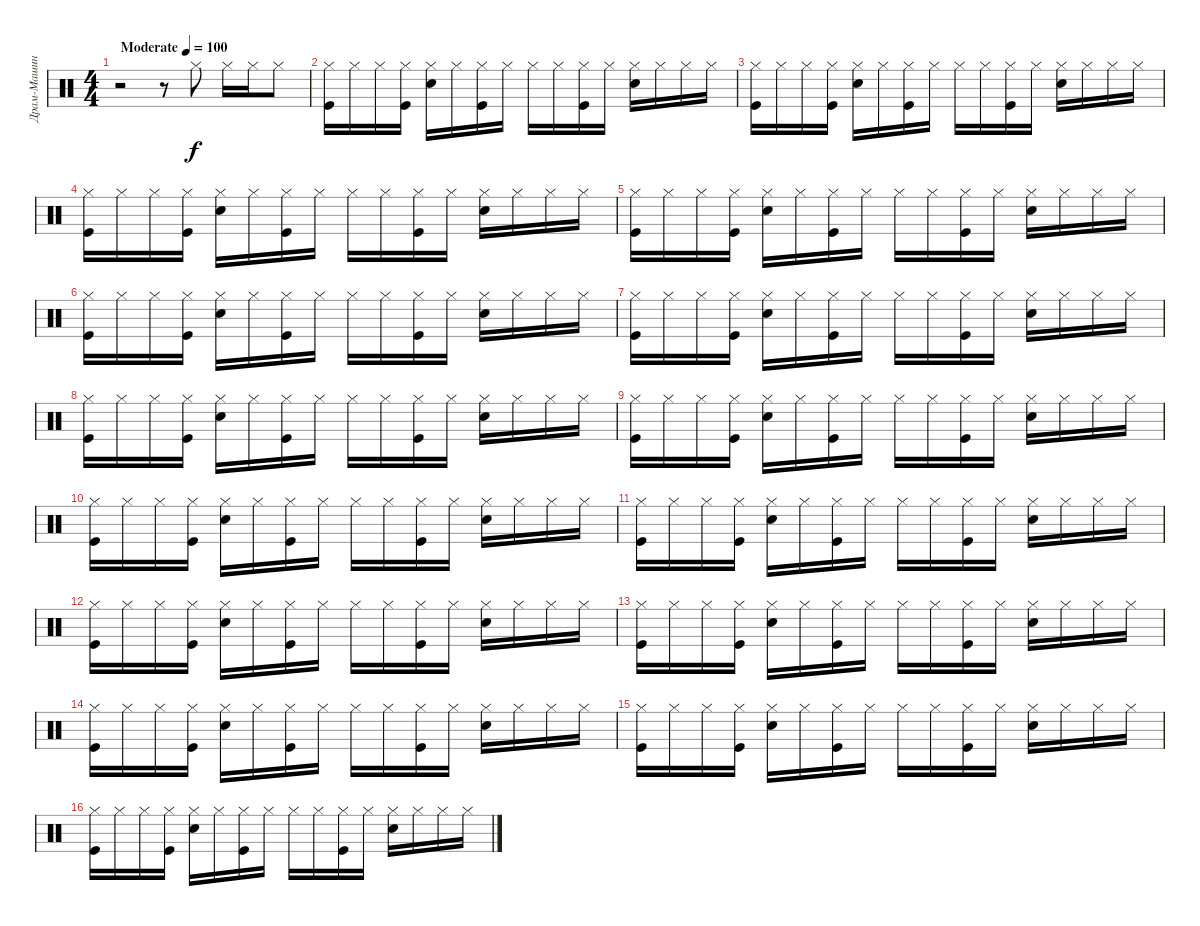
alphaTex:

\track ("Драм-Машина" "Драм-Машин") {instrument percussion}
\staff {score}
\articulation defaults
\ts (4 4)
\tempo (100 "Moderate")
\clef neutral
\ks c
r.2{dy f} r.8 "Hi-Hat (closed)".8 "Hi-Hat (closed)".16 "Hi-Hat (closed)".16 "Hi-Hat (closed)".8 |
("Kick (hit)" "Hi-Hat (closed)").16 "Hi-Hat (closed)".16 "Hi-Hat (closed)".16 ("Kick (hit)" "Hi-Hat (closed)").16 ("Electric Snare (hit)" "Hi-Hat (closed)").16 "Hi-Hat (closed)".16 ("Kick (hit)" "Hi-Hat (closed)").16 "Hi-Hat (closed)".16 "Hi-Hat (closed)".16 "Hi-Hat (closed)".16 ("Kick (hit)" "Hi-Hat (closed)").16 "Hi-Hat (closed)".16 ("Electric Snare (hit)" "Hi-Hat (closed)").16 "Hi-Hat (closed)".16 "Hi-Hat (closed)".16 "Hi-Hat (closed)".16 |
("Kick (hit)" "Hi-Hat (closed)").16 "Hi-Hat (closed)".16 "Hi-Hat (closed)".16 ("Kick (hit)" "Hi-Hat (closed)").16 ("Electric Snare (hit)" "Hi-Hat (closed)").16 "Hi-Hat (closed)".16 ("Kick (hit)" "Hi-Hat (closed)").16 "Hi-Hat (closed)".16 "Hi-Hat (closed)".16 "Hi-Hat (closed)".16 ("Kick (hit)" "Hi-Hat (closed)").16 "Hi-Hat (closed)".16 ("Electric Snare (hit)" "Hi-Hat (closed)").16 "Hi-Hat (closed)".16 "Hi-Hat (closed)".16 "Hi-Hat (closed)".16 |
("Kick (hit)" "Hi-Hat (closed)").16 "Hi-Hat (closed)".16 "Hi-Hat (closed)".16 ("Kick (hit)" "Hi-Hat (closed)").16 ("Electric Snare (hit)" "Hi-Hat (closed)").16 "Hi-Hat (closed)".16 ("Kick (hit)" "Hi-Hat (closed)").16 "Hi-Hat (closed)".16 "Hi-Hat (closed)".16 "Hi-Hat (closed)".16 ("Kick (hit)" "Hi-Hat (closed)").16 "Hi-Hat (closed)".16 ("Electric Snare (hit)" "Hi-Hat (closed)").16 "Hi-Hat (closed)".16 "Hi-Hat (closed)".16 "Hi-Hat (closed)".16 |
("Kick (hit)" "Hi-Hat (closed)").16 "Hi-Hat (closed)".16 "Hi-Hat (closed)".16 ("Kick (hit)" "Hi-Hat (closed)").16 ("Electric Snare (hit)" "Hi-Hat (closed)").16 "Hi-Hat (closed)".16 ("Kick (hit)" "Hi-Hat (closed)").16 "Hi-Hat (closed)".16 "Hi-Hat (closed)".16 "Hi-Hat (closed)".16 ("Kick (hit)" "Hi-Hat (closed)").16 "Hi-Hat (closed)".16 ("Electric Snare (hit)" "Hi-Hat (closed)").16 "Hi-Hat (closed)".16 "Hi-Hat (closed)".16 "Hi-Hat (closed)".16 |
("Kick (hit)" "Hi-Hat (closed)").16 "Hi-Hat (closed)".16 "Hi-Hat (closed)".16 ("Kick (hit)" "Hi-Hat (closed)").16 ("Electric Snare (hit)" "Hi-Hat (closed)").16 "Hi-Hat (closed)".16 ("Kick (hit)" "Hi-Hat (closed)").16 "Hi-Hat (closed)".16 "Hi-Hat (closed)".16 "Hi-Hat (closed)".16 ("Kick (hit)" "Hi-Hat (closed)").16 "Hi-Hat (closed)".16 ("Electric Snare (hit)" "Hi-Hat (closed)").16 "Hi-Hat (closed)".16 "Hi-Hat (closed)".16 "Hi-Hat (closed)".16 |
("Kick (hit)" "Hi-Hat (closed)").16 "Hi-Hat (closed)".16 "Hi-Hat (closed)".16 ("Kick (hit)" "Hi-Hat (closed)").16 ("Electric Snare (hit)" "Hi-Hat (closed)").16 "Hi-Hat (closed)".16 ("Kick (hit)" "Hi-Hat (closed)").16 "Hi-Hat (closed)".16 "Hi-Hat (closed)".16 "Hi-Hat (closed)".16 ("Kick (hit)" "Hi-Hat (closed)").16 "Hi-Hat (closed)".16 ("Electric Snare (hit)" "Hi-Hat (closed)").16 "Hi-Hat (closed)".16 "Hi-Hat (closed)".16 "Hi-Hat (closed)".16 |
("Kick (hit)" "Hi-Hat (closed)").16 "Hi-Hat (closed)".16 "Hi-Hat (closed)".16 ("Kick (hit)" "Hi-Hat (closed)").16 ("Electric Snare (hit)" "Hi-Hat (closed)").16 "Hi-Hat (closed)".16 ("Kick (hit)" "Hi-Hat (closed)").16 "Hi-Hat (closed)".16 "Hi-Hat (closed)".16 "Hi-Hat (closed)".16 ("Kick (hit)" "Hi-Hat (closed)").16 "Hi-Hat (closed)".16 ("Electric Snare (hit)" "Hi-Hat (closed)").16 "Hi-Hat (closed)".16 "Hi-Hat (closed)".16 "Hi-Hat (closed)".16 |
("Kick (hit)" "Hi-Hat (closed)").16 "Hi-Hat (closed)".16 "Hi-Hat (closed)".16 ("Kick (hit)" "Hi-Hat (closed)").16 ("Electric Snare (hit)" "Hi-Hat (closed)").16 "Hi-Hat (closed)".16 ("Kick (hit)" "Hi-Hat (closed)").16 "Hi-Hat (closed)".16 "Hi-Hat (closed)".16 "Hi-Hat (closed)".16 ("Kick (hit)" "Hi-Hat (closed)").16 "Hi-Hat (closed)".16 ("Electric Snare (hit)" "Hi-Hat (closed)").16 "Hi-Hat (closed)".16 "Hi-Hat (closed)".16 "Hi-Hat (closed)".16 |
("Kick (hit)" "Hi-Hat (closed)").16 "Hi-Hat (closed)".16 "Hi-Hat (closed)".16 ("Kick (hit)" "Hi-Hat (closed)").16 ("Electric Snare (hit)" "Hi-Hat (closed)").16 "Hi-Hat (closed)".16 ("Kick (hit)" "Hi-Hat (closed)").16 "Hi-Hat (closed)".16 "Hi-Hat (closed)".16 "Hi-Hat (closed)".16 ("Kick (hit)" "Hi-Hat (closed)").16 "Hi-Hat (closed)".16 ("Electric Snare (hit)" "Hi-Hat (closed)").16 "Hi-Hat (closed)".16 "Hi-Hat (closed)".16 "Hi-Hat (closed)".16 |
("Kick (hit)" "Hi-Hat (closed)").16 "Hi-Hat (closed)".16 "Hi-Hat (closed)".16 ("Kick (hit)" "Hi-Hat (closed)").16 ("Electric Snare (hit)" "Hi-Hat (closed)").16 "Hi-Hat (closed)".16 ("Kick (hit)" "Hi-Hat (closed)").16 "Hi-Hat (closed)".16 "Hi-Hat (closed)".16 "Hi-Hat (closed)".16 ("Kick (hit)" "Hi-Hat (closed)").16 "Hi-Hat (closed)".16 ("Electric Snare (hit)" "Hi-Hat (closed)").16 "Hi-Hat (closed)".16 "Hi-Hat (closed)".16 "Hi-Hat (closed)".16 |
("Kick (hit)" "Hi-Hat (closed)").16 "Hi-Hat (closed)".16 "Hi-Hat (closed)".16 ("Kick (hit)" "Hi-Hat (closed)").16 ("Electric Snare (hit)" "Hi-Hat (closed)").16 "Hi-Hat (closed)".16 ("Kick (hit)" "Hi-Hat (closed)").16 "Hi-Hat (closed)".16 "Hi-Hat (closed)".16 "Hi-Hat (closed)".16 ("Kick (hit)" "Hi-Hat (closed)").16 "Hi-Hat (closed)".16 ("Electric Snare (hit)" "Hi-Hat (closed)").16 "Hi-Hat (closed)".16 "Hi-Hat (closed)".16 "Hi-Hat (closed)".16 |
("Kick (hit)" "Hi-Hat (closed)").16 "Hi-Hat (closed)".16 "Hi-Hat (closed)".16 ("Kick (hit)" "Hi-Hat (closed)").16 ("Electric Snare (hit)" "Hi-Hat (closed)").16 "Hi-Hat (closed)".16 ("Kick (hit)" "Hi-Hat (closed)").16 "Hi-Hat (closed)".16 "Hi-Hat (closed)".16 "Hi-Hat (closed)".16 ("Kick (hit)" "Hi-Hat (closed)").16 "Hi-Hat (closed)".16 ("Electric Snare (hit)" "Hi-Hat (closed)").16 "Hi-Hat (closed)".16 "Hi-Hat (closed)".16 "Hi-Hat (closed)".16 |
("Kick (hit)" "Hi-Hat (closed)").16 "Hi-Hat (closed)".16 "Hi-Hat (closed)".16 ("Kick (hit)" "Hi-Hat (closed)").16 ("Electric Snare (hit)" "Hi-Hat (closed)").16 "Hi-Hat (closed)".16 ("Kick (hit)" "Hi-Hat (closed)").16 "Hi-Hat (closed)".16 "Hi-Hat (closed)".16 "Hi-Hat (closed)".16 ("Kick (hit)" "Hi-Hat (closed)").16 "Hi-Hat (closed)".16 ("Electric Snare (hit)" "Hi-Hat (closed)").16 "Hi-Hat (closed)".16 "Hi-Hat (closed)".16 "Hi-Hat (closed)".16 |
("Kick (hit)" "Hi-Hat (closed)").16 "Hi-Hat (closed)".16 "Hi-Hat (closed)".16 ("Kick (hit)" "Hi-Hat (closed)").16 ("Electric Snare (hit)" "Hi-Hat (closed)").16 "Hi-Hat (closed)".16 ("Kick (hit)" "Hi-Hat (closed)").16 "Hi-Hat (closed)".16 "Hi-Hat (closed)".16 "Hi-Hat (closed)".16 ("Kick (hit)" "Hi-Hat (closed)").16 "Hi-Hat (closed)".16 ("Electric Snare (hit)" "Hi-Hat (closed)").16 "Hi-Hat (closed)".16 "Hi-Hat (closed)".16 "Hi-Hat (closed)".16 |
("Kick (hit)" "Hi-Hat (closed)").16 "Hi-Hat (closed)".16 "Hi-Hat (closed)".16 ("Kick (hit)" "Hi-Hat (closed)").16 ("Electric Snare (hit)" "Hi-Hat (closed)").16 "Hi-Hat (closed)".16 ("Kick (hit)" "Hi-Hat (closed)").16 "Hi-Hat (closed)".16 "Hi-Hat (closed)".16 "Hi-Hat (closed)".16 ("Kick (hit)" "Hi-Hat (closed)").16 "Hi-Hat (closed)".16 ("Electric Snare (hit)" "Hi-Hat (closed)").16 "Hi-Hat (closed)".16 "Hi-Hat (closed)".16 "Hi-Hat (closed)".16
